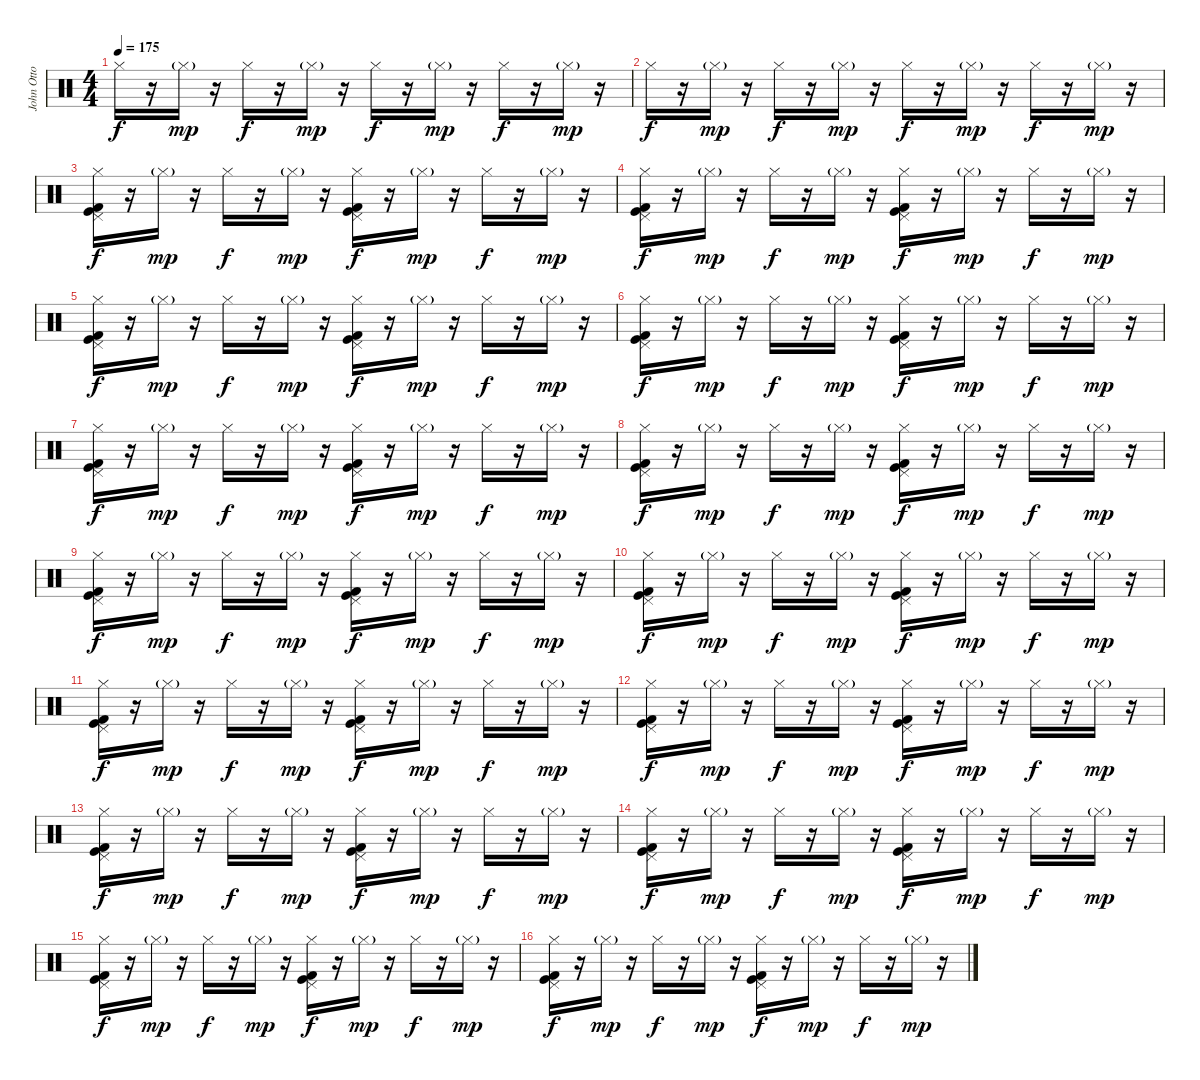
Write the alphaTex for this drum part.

\track ("John Otto" "John Otto") {instrument percussion}
\staff {score}
\articulation defaults
\ts (4 4)
\tempo 175
\clef neutral
\ks c "Hi-Hat (closed)".16{dy f}
r.16 "Hi-Hat (closed)"{g}.16{dy mp} r.16 "Hi-Hat (closed)".16{dy f} r.16 "Hi-Hat (closed)"{g}.16{dy mp} r.16 "Hi-Hat (closed)".16{dy f} r.16 "Hi-Hat (closed)"{g}.16{dy mp} r.16 "Hi-Hat (closed)".16{dy f} r.16 "Hi-Hat (closed)"{g}.16{dy mp} r.16 |
"Hi-Hat (closed)".16{dy f} r.16 "Hi-Hat (closed)"{g}.16{dy mp} r.16 "Hi-Hat (closed)".16{dy f} r.16 "Hi-Hat (closed)"{g}.16{dy mp} r.16 "Hi-Hat (closed)".16{dy f} r.16 "Hi-Hat (closed)"{g}.16{dy mp} r.16 "Hi-Hat (closed)".16{dy f} r.16 "Hi-Hat (closed)"{g}.16{dy mp} r.16 |
("Hi-Hat (closed)" "Pedal Hi-Hat (hit)" "Kick (hit) 2" "Kick (hit)").16{dy f} r.16 "Hi-Hat (closed)"{g}.16{dy mp} r.16 "Hi-Hat (closed)".16{dy f} r.16 "Hi-Hat (closed)"{g}.16{dy mp} r.16 ("Hi-Hat (closed)" "Pedal Hi-Hat (hit)" "Kick (hit) 2" "Kick (hit)").16{dy f} r.16 "Hi-Hat (closed)"{g}.16{dy mp} r.16 "Hi-Hat (closed)".16{dy f} r.16 "Hi-Hat (closed)"{g}.16{dy mp} r.16 |
("Hi-Hat (closed)" "Pedal Hi-Hat (hit)" "Kick (hit) 2" "Kick (hit)").16{dy f} r.16 "Hi-Hat (closed)"{g}.16{dy mp} r.16 "Hi-Hat (closed)".16{dy f} r.16 "Hi-Hat (closed)"{g}.16{dy mp} r.16 ("Hi-Hat (closed)" "Pedal Hi-Hat (hit)" "Kick (hit) 2" "Kick (hit)").16{dy f} r.16 "Hi-Hat (closed)"{g}.16{dy mp} r.16 "Hi-Hat (closed)".16{dy f} r.16 "Hi-Hat (closed)"{g}.16{dy mp} r.16 |
("Hi-Hat (closed)" "Pedal Hi-Hat (hit)" "Kick (hit) 2" "Kick (hit)").16{dy f} r.16 "Hi-Hat (closed)"{g}.16{dy mp} r.16 "Hi-Hat (closed)".16{dy f} r.16 "Hi-Hat (closed)"{g}.16{dy mp} r.16 ("Hi-Hat (closed)" "Pedal Hi-Hat (hit)" "Kick (hit) 2" "Kick (hit)").16{dy f} r.16 "Hi-Hat (closed)"{g}.16{dy mp} r.16 "Hi-Hat (closed)".16{dy f} r.16 "Hi-Hat (closed)"{g}.16{dy mp} r.16 |
("Hi-Hat (closed)" "Pedal Hi-Hat (hit)" "Kick (hit) 2" "Kick (hit)").16{dy f} r.16 "Hi-Hat (closed)"{g}.16{dy mp} r.16 "Hi-Hat (closed)".16{dy f} r.16 "Hi-Hat (closed)"{g}.16{dy mp} r.16 ("Hi-Hat (closed)" "Pedal Hi-Hat (hit)" "Kick (hit) 2" "Kick (hit)").16{dy f} r.16 "Hi-Hat (closed)"{g}.16{dy mp} r.16 "Hi-Hat (closed)".16{dy f} r.16 "Hi-Hat (closed)"{g}.16{dy mp} r.16 |
("Hi-Hat (closed)" "Pedal Hi-Hat (hit)" "Kick (hit) 2" "Kick (hit)").16{dy f} r.16 "Hi-Hat (closed)"{g}.16{dy mp} r.16 "Hi-Hat (closed)".16{dy f} r.16 "Hi-Hat (closed)"{g}.16{dy mp} r.16 ("Hi-Hat (closed)" "Pedal Hi-Hat (hit)" "Kick (hit) 2" "Kick (hit)").16{dy f} r.16 "Hi-Hat (closed)"{g}.16{dy mp} r.16 "Hi-Hat (closed)".16{dy f} r.16 "Hi-Hat (closed)"{g}.16{dy mp} r.16 |
("Hi-Hat (closed)" "Pedal Hi-Hat (hit)" "Kick (hit) 2" "Kick (hit)").16{dy f} r.16 "Hi-Hat (closed)"{g}.16{dy mp} r.16 "Hi-Hat (closed)".16{dy f} r.16 "Hi-Hat (closed)"{g}.16{dy mp} r.16 ("Hi-Hat (closed)" "Pedal Hi-Hat (hit)" "Kick (hit) 2" "Kick (hit)").16{dy f} r.16 "Hi-Hat (closed)"{g}.16{dy mp} r.16 "Hi-Hat (closed)".16{dy f} r.16 "Hi-Hat (closed)"{g}.16{dy mp} r.16 |
("Hi-Hat (closed)" "Pedal Hi-Hat (hit)" "Kick (hit) 2" "Kick (hit)").16{dy f} r.16 "Hi-Hat (closed)"{g}.16{dy mp} r.16 "Hi-Hat (closed)".16{dy f} r.16 "Hi-Hat (closed)"{g}.16{dy mp} r.16 ("Hi-Hat (closed)" "Pedal Hi-Hat (hit)" "Kick (hit) 2" "Kick (hit)").16{dy f} r.16 "Hi-Hat (closed)"{g}.16{dy mp} r.16 "Hi-Hat (closed)".16{dy f} r.16 "Hi-Hat (closed)"{g}.16{dy mp} r.16 |
("Hi-Hat (closed)" "Pedal Hi-Hat (hit)" "Kick (hit) 2" "Kick (hit)").16{dy f} r.16 "Hi-Hat (closed)"{g}.16{dy mp} r.16 "Hi-Hat (closed)".16{dy f} r.16 "Hi-Hat (closed)"{g}.16{dy mp} r.16 ("Hi-Hat (closed)" "Pedal Hi-Hat (hit)" "Kick (hit) 2" "Kick (hit)").16{dy f} r.16 "Hi-Hat (closed)"{g}.16{dy mp} r.16 "Hi-Hat (closed)".16{dy f} r.16 "Hi-Hat (closed)"{g}.16{dy mp} r.16 |
("Hi-Hat (closed)" "Pedal Hi-Hat (hit)" "Kick (hit) 2" "Kick (hit)").16{dy f} r.16 "Hi-Hat (closed)"{g}.16{dy mp} r.16 "Hi-Hat (closed)".16{dy f} r.16 "Hi-Hat (closed)"{g}.16{dy mp} r.16 ("Hi-Hat (closed)" "Pedal Hi-Hat (hit)" "Kick (hit) 2" "Kick (hit)").16{dy f} r.16 "Hi-Hat (closed)"{g}.16{dy mp} r.16 "Hi-Hat (closed)".16{dy f} r.16 "Hi-Hat (closed)"{g}.16{dy mp} r.16 |
("Hi-Hat (closed)" "Pedal Hi-Hat (hit)" "Kick (hit) 2" "Kick (hit)").16{dy f} r.16 "Hi-Hat (closed)"{g}.16{dy mp} r.16 "Hi-Hat (closed)".16{dy f} r.16 "Hi-Hat (closed)"{g}.16{dy mp} r.16 ("Hi-Hat (closed)" "Pedal Hi-Hat (hit)" "Kick (hit) 2" "Kick (hit)").16{dy f} r.16 "Hi-Hat (closed)"{g}.16{dy mp} r.16 "Hi-Hat (closed)".16{dy f} r.16 "Hi-Hat (closed)"{g}.16{dy mp} r.16 |
("Hi-Hat (closed)" "Pedal Hi-Hat (hit)" "Kick (hit) 2" "Kick (hit)").16{dy f} r.16 "Hi-Hat (closed)"{g}.16{dy mp} r.16 "Hi-Hat (closed)".16{dy f} r.16 "Hi-Hat (closed)"{g}.16{dy mp} r.16 ("Hi-Hat (closed)" "Pedal Hi-Hat (hit)" "Kick (hit) 2" "Kick (hit)").16{dy f} r.16 "Hi-Hat (closed)"{g}.16{dy mp} r.16 "Hi-Hat (closed)".16{dy f} r.16 "Hi-Hat (closed)"{g}.16{dy mp} r.16 |
("Hi-Hat (closed)" "Pedal Hi-Hat (hit)" "Kick (hit) 2" "Kick (hit)").16{dy f} r.16 "Hi-Hat (closed)"{g}.16{dy mp} r.16 "Hi-Hat (closed)".16{dy f} r.16 "Hi-Hat (closed)"{g}.16{dy mp} r.16 ("Hi-Hat (closed)" "Pedal Hi-Hat (hit)" "Kick (hit) 2" "Kick (hit)").16{dy f} r.16 "Hi-Hat (closed)"{g}.16{dy mp} r.16 "Hi-Hat (closed)".16{dy f} r.16 "Hi-Hat (closed)"{g}.16{dy mp} r.16 |
("Hi-Hat (closed)" "Pedal Hi-Hat (hit)" "Kick (hit) 2" "Kick (hit)").16{dy f} r.16 "Hi-Hat (closed)"{g}.16{dy mp} r.16 "Hi-Hat (closed)".16{dy f} r.16 "Hi-Hat (closed)"{g}.16{dy mp} r.16 ("Hi-Hat (closed)" "Pedal Hi-Hat (hit)" "Kick (hit) 2" "Kick (hit)").16{dy f} r.16 "Hi-Hat (closed)"{g}.16{dy mp} r.16 "Hi-Hat (closed)".16{dy f} r.16 "Hi-Hat (closed)"{g}.16{dy mp} r.16 |
("Hi-Hat (closed)" "Pedal Hi-Hat (hit)" "Kick (hit) 2" "Kick (hit)").16{dy f} r.16 "Hi-Hat (closed)"{g}.16{dy mp} r.16 "Hi-Hat (closed)".16{dy f} r.16 "Hi-Hat (closed)"{g}.16{dy mp} r.16 ("Hi-Hat (closed)" "Pedal Hi-Hat (hit)" "Kick (hit) 2" "Kick (hit)").16{dy f} r.16 "Hi-Hat (closed)"{g}.16{dy mp} r.16 "Hi-Hat (closed)".16{dy f} r.16 "Hi-Hat (closed)"{g}.16{dy mp} r.16
